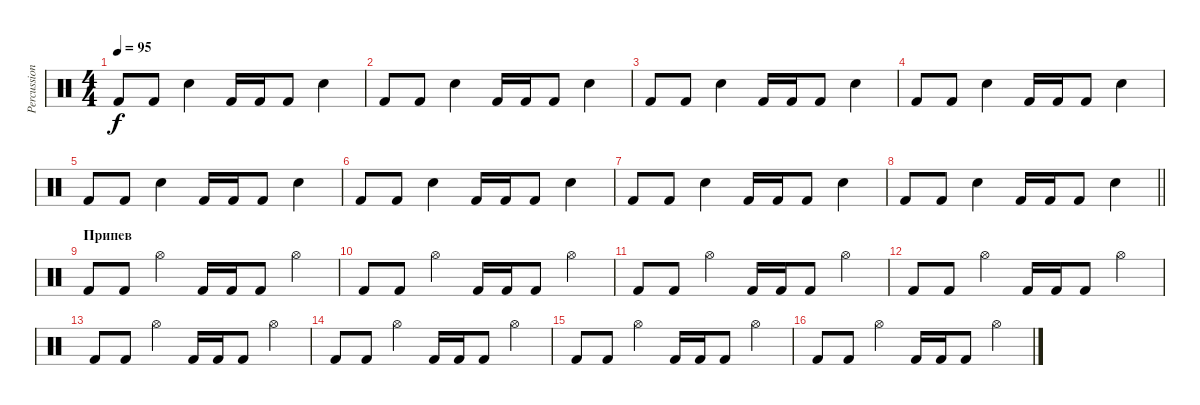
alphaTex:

\track ("Percussion" "Percussion") {instrument percussion}
\staff {score}
\articulation defaults
\ts (4 4)
\tempo 95
\clef neutral
\ks c "Kick (hit) 2".8{dy f} "Kick (hit) 2".8 "Electric Snare (hit)".4 "Kick (hit) 2".16 "Kick (hit) 2".16 "Kick (hit) 2".8 "Electric Snare (hit)".4
|
"Kick (hit) 2".8 "Kick (hit) 2".8 "Electric Snare (hit)".4 "Kick (hit) 2".16 "Kick (hit) 2".16 "Kick (hit) 2".8 "Electric Snare (hit)".4 |
"Kick (hit) 2".8 "Kick (hit) 2".8 "Electric Snare (hit)".4 "Kick (hit) 2".16 "Kick (hit) 2".16 "Kick (hit) 2".8 "Electric Snare (hit)".4 |
"Kick (hit) 2".8 "Kick (hit) 2".8 "Electric Snare (hit)".4 "Kick (hit) 2".16 "Kick (hit) 2".16 "Kick (hit) 2".8 "Electric Snare (hit)".4 |
"Kick (hit) 2".8 "Kick (hit) 2".8 "Electric Snare (hit)".4 "Kick (hit) 2".16 "Kick (hit) 2".16 "Kick (hit) 2".8 "Electric Snare (hit)".4 |
"Kick (hit) 2".8 "Kick (hit) 2".8 "Electric Snare (hit)".4 "Kick (hit) 2".16 "Kick (hit) 2".16 "Kick (hit) 2".8 "Electric Snare (hit)".4 |
"Kick (hit) 2".8 "Kick (hit) 2".8 "Electric Snare (hit)".4 "Kick (hit) 2".16 "Kick (hit) 2".16 "Kick (hit) 2".8 "Electric Snare (hit)".4 |
\barLineRight lightlight "Kick (hit) 2".8 "Kick (hit) 2".8 "Electric Snare (hit)".4 "Kick (hit) 2".16 "Kick (hit) 2".16 "Kick (hit) 2".8 "Electric Snare (hit)".4
|
\section ("" "Припев")
"Kick (hit) 2".8 "Kick (hit) 2".8 "Hi-Hat (open)".4 "Kick (hit) 2".16 "Kick (hit) 2".16 "Kick (hit) 2".8 "Hi-Hat (open)".4 |
"Kick (hit) 2".8 "Kick (hit) 2".8 "Hi-Hat (open)".4 "Kick (hit) 2".16 "Kick (hit) 2".16 "Kick (hit) 2".8 "Hi-Hat (open)".4 |
"Kick (hit) 2".8 "Kick (hit) 2".8 "Hi-Hat (open)".4 "Kick (hit) 2".16 "Kick (hit) 2".16 "Kick (hit) 2".8 "Hi-Hat (open)".4 |
"Kick (hit) 2".8 "Kick (hit) 2".8 "Hi-Hat (open)".4 "Kick (hit) 2".16 "Kick (hit) 2".16 "Kick (hit) 2".8 "Hi-Hat (open)".4 |
"Kick (hit) 2".8 "Kick (hit) 2".8 "Hi-Hat (open)".4 "Kick (hit) 2".16 "Kick (hit) 2".16 "Kick (hit) 2".8 "Hi-Hat (open)".4 |
"Kick (hit) 2".8 "Kick (hit) 2".8 "Hi-Hat (open)".4 "Kick (hit) 2".16 "Kick (hit) 2".16 "Kick (hit) 2".8 "Hi-Hat (open)".4 |
"Kick (hit) 2".8 "Kick (hit) 2".8 "Hi-Hat (open)".4 "Kick (hit) 2".16 "Kick (hit) 2".16 "Kick (hit) 2".8 "Hi-Hat (open)".4 |
"Kick (hit) 2".8 "Kick (hit) 2".8 "Hi-Hat (open)".4 "Kick (hit) 2".16 "Kick (hit) 2".16 "Kick (hit) 2".8 "Hi-Hat (open)".4
